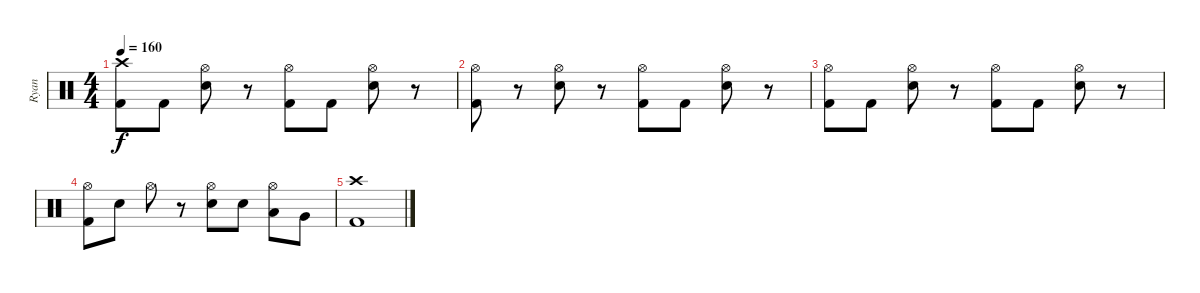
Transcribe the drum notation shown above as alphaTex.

\track ("Ryan" "Ryan") {instrument percussion}
\staff {score}
\articulation defaults
\ts (4 4)
\tempo 160
\clef neutral
\ks c
("Crash high (hit)" "Kick (hit) 2").8{dy f} "Kick (hit) 2".8 ("Hi-Hat (open)" "Snare (hit) 2").8 r.8 ("Hi-Hat (open)" "Kick (hit) 2").8 "Kick (hit) 2".8 ("Hi-Hat (open)" "Snare (hit) 2").8 r.8 |
("Hi-Hat (open)" "Kick (hit) 2").8 r.8 ("Hi-Hat (open)" "Snare (hit) 2").8 r.8 ("Hi-Hat (open)" "Kick (hit) 2").8 "Kick (hit) 2".8 ("Hi-Hat (open)" "Snare (hit) 2").8 r.8 |
("Hi-Hat (open)" "Kick (hit) 2").8 "Kick (hit) 2".8 ("Hi-Hat (open)" "Snare (hit) 2").8 r.8 ("Hi-Hat (open)" "Kick (hit) 2").8 "Kick (hit) 2".8 ("Hi-Hat (open)" "Snare (hit) 2").8 r.8 |
("Hi-Hat (open)" "Kick (hit) 2").8 "Snare (hit) 2".8 "Hi-Hat (open)".8 r.8 ("Hi-Hat (open)" "Snare (hit) 2").8 "Snare (hit) 2".8 ("Hi-Hat (open)" "Low Tom (hit)").8 "Very Low Tom (hit)".8 |
("Crash high (hit)" "Kick (hit) 2").1
